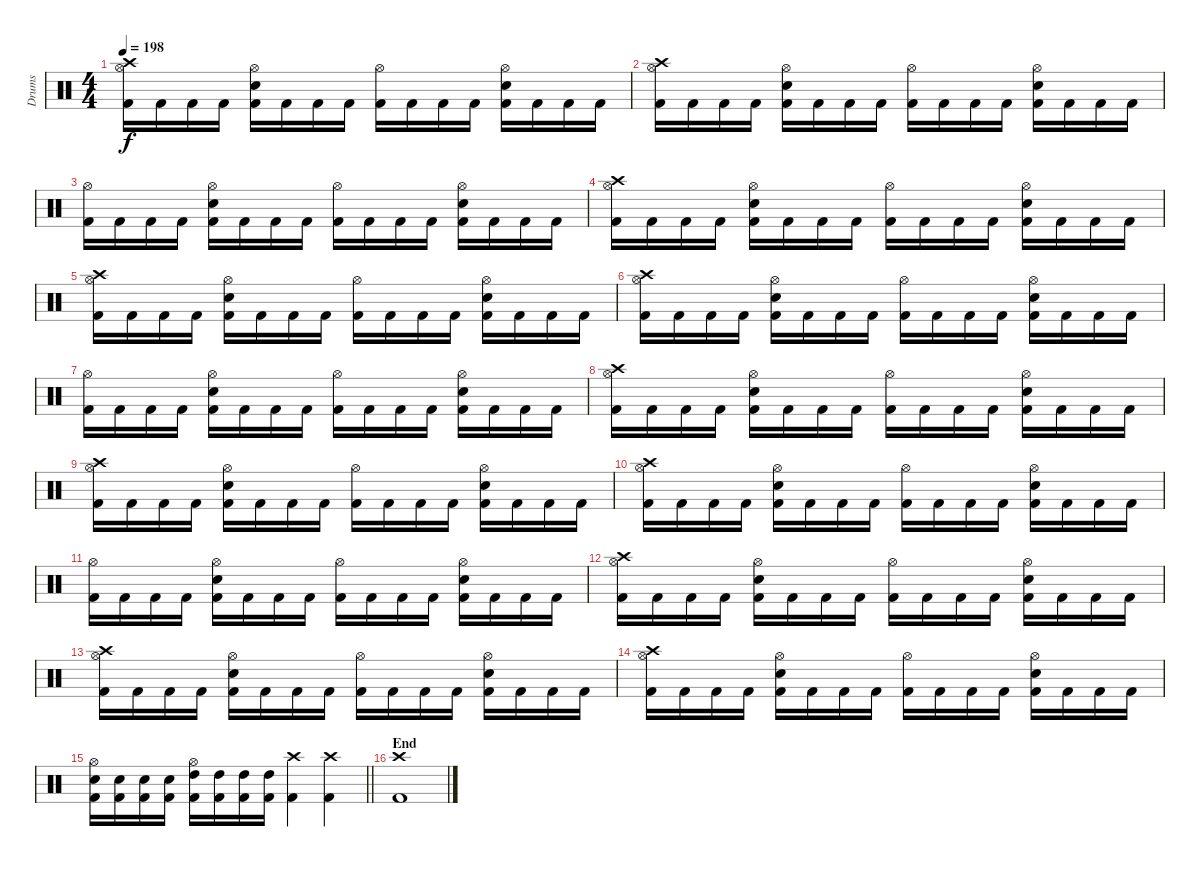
\track ("Drums" "Drums") {instrument percussion}
\staff {score}
\articulation defaults
\ts (4 4)
\tempo 198
\clef neutral
\ks c
("Crash high (hit)" "Hi-Hat (open)" "Kick (hit) 2").16{dy f} "Kick (hit) 2".16 "Kick (hit) 2".16 "Kick (hit) 2".16 ("Hi-Hat (open)" "Snare (hit) 2" "Kick (hit) 2").16 "Kick (hit) 2".16 "Kick (hit) 2".16 "Kick (hit) 2".16 ("Hi-Hat (open)" "Kick (hit) 2").16 "Kick (hit) 2".16 "Kick (hit) 2".16 "Kick (hit) 2".16 ("Hi-Hat (open)" "Snare (hit) 2" "Kick (hit) 2").16 "Kick (hit) 2".16 "Kick (hit) 2".16 "Kick (hit) 2".16 |
("Crash high (hit)" "Hi-Hat (open)" "Kick (hit) 2").16 "Kick (hit) 2".16 "Kick (hit) 2".16 "Kick (hit) 2".16 ("Hi-Hat (open)" "Snare (hit) 2" "Kick (hit) 2").16 "Kick (hit) 2".16 "Kick (hit) 2".16 "Kick (hit) 2".16 ("Hi-Hat (open)" "Kick (hit) 2").16 "Kick (hit) 2".16 "Kick (hit) 2".16 "Kick (hit) 2".16 ("Hi-Hat (open)" "Snare (hit) 2" "Kick (hit) 2").16 "Kick (hit) 2".16 "Kick (hit) 2".16 "Kick (hit) 2".16 |
("Hi-Hat (open)" "Kick (hit) 2").16 "Kick (hit) 2".16 "Kick (hit) 2".16 "Kick (hit) 2".16 ("Hi-Hat (open)" "Snare (hit) 2" "Kick (hit) 2").16 "Kick (hit) 2".16 "Kick (hit) 2".16 "Kick (hit) 2".16 ("Hi-Hat (open)" "Kick (hit) 2").16 "Kick (hit) 2".16 "Kick (hit) 2".16 "Kick (hit) 2".16 ("Hi-Hat (open)" "Snare (hit) 2" "Kick (hit) 2").16 "Kick (hit) 2".16 "Kick (hit) 2".16 "Kick (hit) 2".16 |
("Crash high (hit)" "Hi-Hat (open)" "Kick (hit) 2").16 "Kick (hit) 2".16 "Kick (hit) 2".16 "Kick (hit) 2".16 ("Hi-Hat (open)" "Snare (hit) 2" "Kick (hit) 2").16 "Kick (hit) 2".16 "Kick (hit) 2".16 "Kick (hit) 2".16 ("Hi-Hat (open)" "Kick (hit) 2").16 "Kick (hit) 2".16 "Kick (hit) 2".16 "Kick (hit) 2".16 ("Hi-Hat (open)" "Snare (hit) 2" "Kick (hit) 2").16 "Kick (hit) 2".16 "Kick (hit) 2".16 "Kick (hit) 2".16 |
("Crash high (hit)" "Hi-Hat (open)" "Kick (hit) 2").16 "Kick (hit) 2".16 "Kick (hit) 2".16 "Kick (hit) 2".16 ("Hi-Hat (open)" "Snare (hit) 2" "Kick (hit) 2").16 "Kick (hit) 2".16 "Kick (hit) 2".16 "Kick (hit) 2".16 ("Hi-Hat (open)" "Kick (hit) 2").16 "Kick (hit) 2".16 "Kick (hit) 2".16 "Kick (hit) 2".16 ("Hi-Hat (open)" "Snare (hit) 2" "Kick (hit) 2").16 "Kick (hit) 2".16 "Kick (hit) 2".16 "Kick (hit) 2".16 |
("Crash high (hit)" "Hi-Hat (open)" "Kick (hit) 2").16 "Kick (hit) 2".16 "Kick (hit) 2".16 "Kick (hit) 2".16 ("Hi-Hat (open)" "Snare (hit) 2" "Kick (hit) 2").16 "Kick (hit) 2".16 "Kick (hit) 2".16 "Kick (hit) 2".16 ("Hi-Hat (open)" "Kick (hit) 2").16 "Kick (hit) 2".16 "Kick (hit) 2".16 "Kick (hit) 2".16 ("Hi-Hat (open)" "Snare (hit) 2" "Kick (hit) 2").16 "Kick (hit) 2".16 "Kick (hit) 2".16 "Kick (hit) 2".16 |
("Hi-Hat (open)" "Kick (hit) 2").16 "Kick (hit) 2".16 "Kick (hit) 2".16 "Kick (hit) 2".16 ("Hi-Hat (open)" "Snare (hit) 2" "Kick (hit) 2").16 "Kick (hit) 2".16 "Kick (hit) 2".16 "Kick (hit) 2".16 ("Hi-Hat (open)" "Kick (hit) 2").16 "Kick (hit) 2".16 "Kick (hit) 2".16 "Kick (hit) 2".16 ("Hi-Hat (open)" "Snare (hit) 2" "Kick (hit) 2").16 "Kick (hit) 2".16 "Kick (hit) 2".16 "Kick (hit) 2".16 |
("Crash high (hit)" "Hi-Hat (open)" "Kick (hit) 2").16 "Kick (hit) 2".16 "Kick (hit) 2".16 "Kick (hit) 2".16 ("Hi-Hat (open)" "Snare (hit) 2" "Kick (hit) 2").16 "Kick (hit) 2".16 "Kick (hit) 2".16 "Kick (hit) 2".16 ("Hi-Hat (open)" "Kick (hit) 2").16 "Kick (hit) 2".16 "Kick (hit) 2".16 "Kick (hit) 2".16 ("Hi-Hat (open)" "Snare (hit) 2" "Kick (hit) 2").16 "Kick (hit) 2".16 "Kick (hit) 2".16 "Kick (hit) 2".16 |
("Crash high (hit)" "Hi-Hat (open)" "Kick (hit) 2").16 "Kick (hit) 2".16 "Kick (hit) 2".16 "Kick (hit) 2".16 ("Hi-Hat (open)" "Snare (hit) 2" "Kick (hit) 2").16 "Kick (hit) 2".16 "Kick (hit) 2".16 "Kick (hit) 2".16 ("Hi-Hat (open)" "Kick (hit) 2").16 "Kick (hit) 2".16 "Kick (hit) 2".16 "Kick (hit) 2".16 ("Hi-Hat (open)" "Snare (hit) 2" "Kick (hit) 2").16 "Kick (hit) 2".16 "Kick (hit) 2".16 "Kick (hit) 2".16 |
("Crash high (hit)" "Hi-Hat (open)" "Kick (hit) 2").16 "Kick (hit) 2".16 "Kick (hit) 2".16 "Kick (hit) 2".16 ("Hi-Hat (open)" "Snare (hit) 2" "Kick (hit) 2").16 "Kick (hit) 2".16 "Kick (hit) 2".16 "Kick (hit) 2".16 ("Hi-Hat (open)" "Kick (hit) 2").16 "Kick (hit) 2".16 "Kick (hit) 2".16 "Kick (hit) 2".16 ("Hi-Hat (open)" "Snare (hit) 2" "Kick (hit) 2").16 "Kick (hit) 2".16 "Kick (hit) 2".16 "Kick (hit) 2".16 |
("Hi-Hat (open)" "Kick (hit) 2").16 "Kick (hit) 2".16 "Kick (hit) 2".16 "Kick (hit) 2".16 ("Hi-Hat (open)" "Snare (hit) 2" "Kick (hit) 2").16 "Kick (hit) 2".16 "Kick (hit) 2".16 "Kick (hit) 2".16 ("Hi-Hat (open)" "Kick (hit) 2").16 "Kick (hit) 2".16 "Kick (hit) 2".16 "Kick (hit) 2".16 ("Hi-Hat (open)" "Snare (hit) 2" "Kick (hit) 2").16 "Kick (hit) 2".16 "Kick (hit) 2".16 "Kick (hit) 2".16 |
("Crash high (hit)" "Hi-Hat (open)" "Kick (hit) 2").16 "Kick (hit) 2".16 "Kick (hit) 2".16 "Kick (hit) 2".16 ("Hi-Hat (open)" "Snare (hit) 2" "Kick (hit) 2").16 "Kick (hit) 2".16 "Kick (hit) 2".16 "Kick (hit) 2".16 ("Hi-Hat (open)" "Kick (hit) 2").16 "Kick (hit) 2".16 "Kick (hit) 2".16 "Kick (hit) 2".16 ("Hi-Hat (open)" "Snare (hit) 2" "Kick (hit) 2").16 "Kick (hit) 2".16 "Kick (hit) 2".16 "Kick (hit) 2".16 |
("Crash high (hit)" "Hi-Hat (open)" "Kick (hit) 2").16 "Kick (hit) 2".16 "Kick (hit) 2".16 "Kick (hit) 2".16 ("Hi-Hat (open)" "Snare (hit) 2" "Kick (hit) 2").16 "Kick (hit) 2".16 "Kick (hit) 2".16 "Kick (hit) 2".16 ("Hi-Hat (open)" "Kick (hit) 2").16 "Kick (hit) 2".16 "Kick (hit) 2".16 "Kick (hit) 2".16 ("Hi-Hat (open)" "Snare (hit) 2" "Kick (hit) 2").16 "Kick (hit) 2".16 "Kick (hit) 2".16 "Kick (hit) 2".16 |
("Crash high (hit)" "Hi-Hat (open)" "Kick (hit) 2").16 "Kick (hit) 2".16 "Kick (hit) 2".16 "Kick (hit) 2".16 ("Hi-Hat (open)" "Snare (hit) 2" "Kick (hit) 2").16 "Kick (hit) 2".16 "Kick (hit) 2".16 "Kick (hit) 2".16 ("Hi-Hat (open)" "Kick (hit) 2").16 "Kick (hit) 2".16 "Kick (hit) 2".16 "Kick (hit) 2".16 ("Hi-Hat (open)" "Snare (hit) 2" "Kick (hit) 2").16 "Kick (hit) 2".16 "Kick (hit) 2".16 "Kick (hit) 2".16 |
\barLineRight lightlight
("Hi-Hat (open)" "Snare (hit) 2" "Kick (hit) 2").16 ("Snare (hit) 2" "Kick (hit) 2").16 ("Snare (hit) 2" "Kick (hit) 2").16 ("Snare (hit) 2" "Kick (hit) 2").16 ("Hi-Hat (open)" "High Tom (hit)" "Kick (hit) 2").16 ("High Tom (hit)" "Kick (hit) 2").16 ("High Tom (hit)" "Kick (hit) 2").16 ("High Tom (hit)" "Kick (hit) 2").16 ("Crash high (hit)" "Kick (hit) 2").4 ("Crash high (hit)" "Kick (hit) 2").4 |
\section ("" "End")
("Crash high (hit)" "Kick (hit) 2").1
